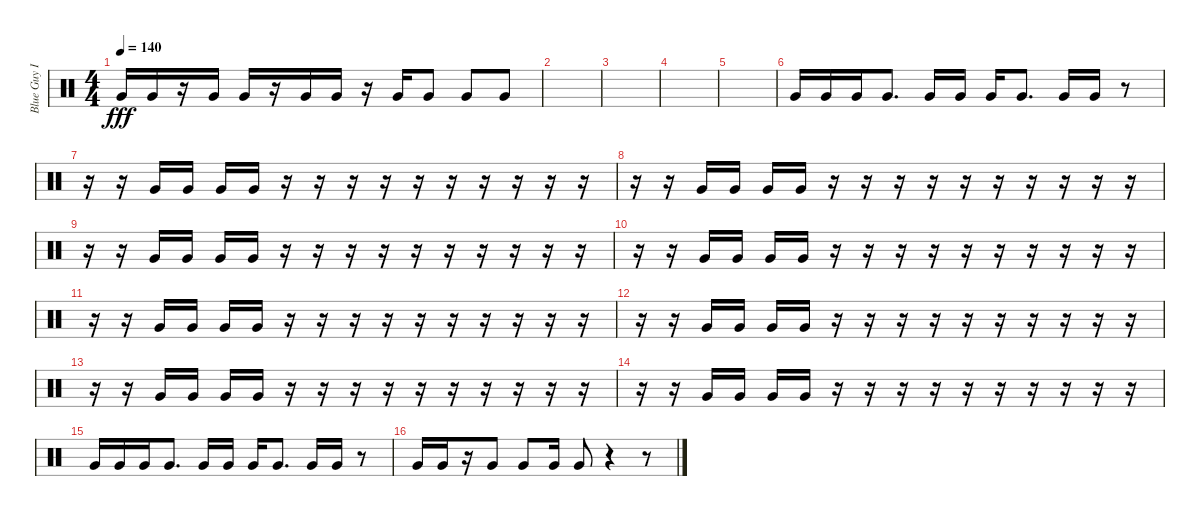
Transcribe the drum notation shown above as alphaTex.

\track ("Blue Guy I" "Blue Guy I") {instrument percussion}
\staff {score}
\articulation defaults
\ts (4 4)
\tempo 140
\clef neutral
\ks c "Very Low Tom (hit)".16{dy fff} "Very Low Tom (hit)".16
r.16 "Very Low Tom (hit)".16 "Very Low Tom (hit)".16 r.16 "Very Low Tom (hit)".16 "Very Low Tom (hit)".16 r.16 "Very Low Tom (hit)".16 "Very Low Tom (hit)".8 "Very Low Tom (hit)".8 "Very Low Tom (hit)".8 |
|
|
|
|
"Very Low Tom (hit)".16 "Very Low Tom (hit)".16 "Very Low Tom (hit)".16 "Very Low Tom (hit)".8{d} "Very Low Tom (hit)".16 "Very Low Tom (hit)".16 "Very Low Tom (hit)".16 "Very Low Tom (hit)".8{d} "Very Low Tom (hit)".16 "Very Low Tom (hit)".16 r.8 |
r.16 r.16 "Very Low Tom (hit)".16 "Very Low Tom (hit)".16 "Very Low Tom (hit)".16 "Very Low Tom (hit)".16 r.16 r.16 r.16 r.16 r.16 r.16 r.16 r.16 r.16 r.16 |
r.16 r.16 "Very Low Tom (hit)".16 "Very Low Tom (hit)".16 "Very Low Tom (hit)".16 "Very Low Tom (hit)".16 r.16 r.16 r.16 r.16 r.16 r.16 r.16 r.16 r.16 r.16 |
r.16 r.16 "Very Low Tom (hit)".16 "Very Low Tom (hit)".16 "Very Low Tom (hit)".16 "Very Low Tom (hit)".16 r.16 r.16 r.16 r.16 r.16 r.16 r.16 r.16 r.16 r.16 |
r.16 r.16 "Very Low Tom (hit)".16 "Very Low Tom (hit)".16 "Very Low Tom (hit)".16 "Very Low Tom (hit)".16 r.16 r.16 r.16 r.16 r.16 r.16 r.16 r.16 r.16 r.16 |
r.16 r.16 "Very Low Tom (hit)".16 "Very Low Tom (hit)".16 "Very Low Tom (hit)".16 "Very Low Tom (hit)".16 r.16 r.16 r.16 r.16 r.16 r.16 r.16 r.16 r.16 r.16 |
r.16 r.16 "Very Low Tom (hit)".16 "Very Low Tom (hit)".16 "Very Low Tom (hit)".16 "Very Low Tom (hit)".16 r.16 r.16 r.16 r.16 r.16 r.16 r.16 r.16 r.16 r.16 |
r.16 r.16 "Very Low Tom (hit)".16 "Very Low Tom (hit)".16 "Very Low Tom (hit)".16 "Very Low Tom (hit)".16 r.16 r.16 r.16 r.16 r.16 r.16 r.16 r.16 r.16 r.16 |
r.16 r.16 "Very Low Tom (hit)".16 "Very Low Tom (hit)".16 "Very Low Tom (hit)".16 "Very Low Tom (hit)".16 r.16 r.16 r.16 r.16 r.16 r.16 r.16 r.16 r.16 r.16 |
"Very Low Tom (hit)".16 "Very Low Tom (hit)".16 "Very Low Tom (hit)".16 "Very Low Tom (hit)".8{d} "Very Low Tom (hit)".16 "Very Low Tom (hit)".16 "Very Low Tom (hit)".16 "Very Low Tom (hit)".8{d} "Very Low Tom (hit)".16 "Very Low Tom (hit)".16 r.8 |
"Very Low Tom (hit)".16 "Very Low Tom (hit)".16 r.16 "Very Low Tom (hit)".8 "Very Low Tom (hit)".8 "Very Low Tom (hit)".16 "Very Low Tom (hit)".8 r.4 r.8
